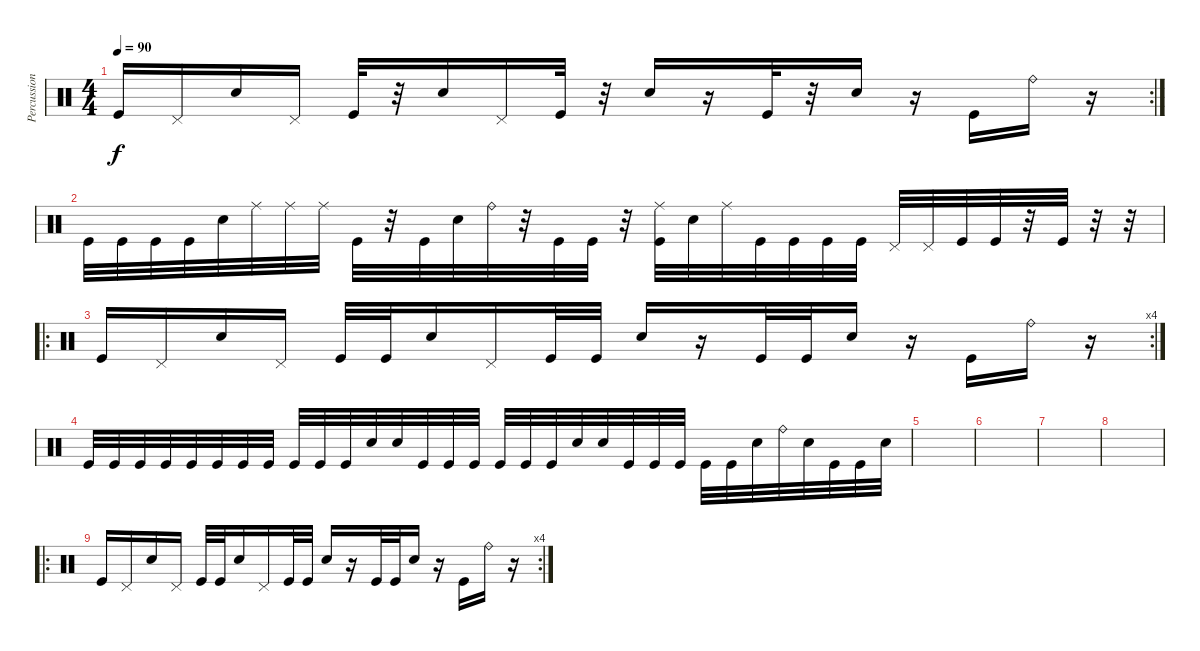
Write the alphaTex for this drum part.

\track ("Percussions" "Percussion") {instrument percussion}
\staff {score}
\articulation defaults
\rc 2
\ts (4 4)
\tempo 90
\clef neutral
\ks c "Kick (hit)".16{dy f} "Pedal Hi-Hat (hit)".16 "Electric Snare (hit)".16 "Pedal Hi-Hat (hit)".16 "Kick (hit)".32
r.32 "Electric Snare (hit)".16 "Pedal Hi-Hat (hit)".16 "Kick (hit)".32 r.32 "Electric Snare (hit)".16 r.16 "Kick (hit)".32 r.32 "Electric Snare (hit)".16 r.16 "Kick (hit)".16 "Ride (bell)".16 r.16 |
"Kick (hit)".32 "Kick (hit)".32 "Kick (hit)".32 "Kick (hit)".32 "Electric Snare (hit)".32 "Ride (middle)".32 "Ride (middle)".32 "Ride (middle)".32 "Kick (hit)".32 r.32 "Kick (hit)".32 "Electric Snare (hit)".32 "Ride (bell)".32 r.32 "Kick (hit)".32 "Kick (hit)".32 r.32 ("Ride (middle)" "Kick (hit)").32 "Electric Snare (hit)".32 "Ride (middle)".32 "Kick (hit)".32 "Kick (hit)".32 "Kick (hit)".32 "Kick (hit)".32 "Pedal Hi-Hat (hit)".32 "Pedal Hi-Hat (hit)".32 "Kick (hit)".32 "Kick (hit)".32 r.32 "Kick (hit)".32 r.32 r.32 |
\ro
\rc 4 "Kick (hit)".16 "Pedal Hi-Hat (hit)".16 "Electric Snare (hit)".16 "Pedal Hi-Hat (hit)".16 "Kick (hit)".32 "Kick (hit)".32 "Electric Snare (hit)".16 "Pedal Hi-Hat (hit)".16 "Kick (hit)".32 "Kick (hit)".32 "Electric Snare (hit)".16
r.16 "Kick (hit)".32 "Kick (hit)".32 "Electric Snare (hit)".16 r.16 "Kick (hit)".16 "Ride (bell)".16 r.16 |
"Kick (hit)".32 "Kick (hit)".32 "Kick (hit)".32 "Kick (hit)".32 "Kick (hit)".32 "Kick (hit)".32 "Kick (hit)".32 "Kick (hit)".32 "Kick (hit)".32 "Kick (hit)".32 "Kick (hit)".32 "Snare (hit)".32 "Snare (hit)".32 "Kick (hit)".32 "Kick (hit)".32 "Kick (hit)".32 "Kick (hit)".32 "Kick (hit)".32 "Kick (hit)".32 "Snare (hit)".32 "Snare (hit)".32 "Kick (hit)".32 "Kick (hit)".32 "Kick (hit)".32 "Kick (hit)".32 "Kick (hit)".32 "Snare (hit)".32 "Ride (bell)".32 "Snare (hit)".32 "Kick (hit)".32 "Kick (hit)".32 "Snare (hit)".32 |
|
|
|
|
\ro
\rc 4 "Kick (hit)".16 "Pedal Hi-Hat (hit)".16 "Electric Snare (hit)".16 "Pedal Hi-Hat (hit)".16 "Kick (hit)".32 "Kick (hit)".32 "Electric Snare (hit)".16 "Pedal Hi-Hat (hit)".16 "Kick (hit)".32 "Kick (hit)".32 "Electric Snare (hit)".16
r.16 "Kick (hit)".32 "Kick (hit)".32 "Electric Snare (hit)".16 r.16 "Kick (hit)".16 "Ride (bell)".16 r.16
